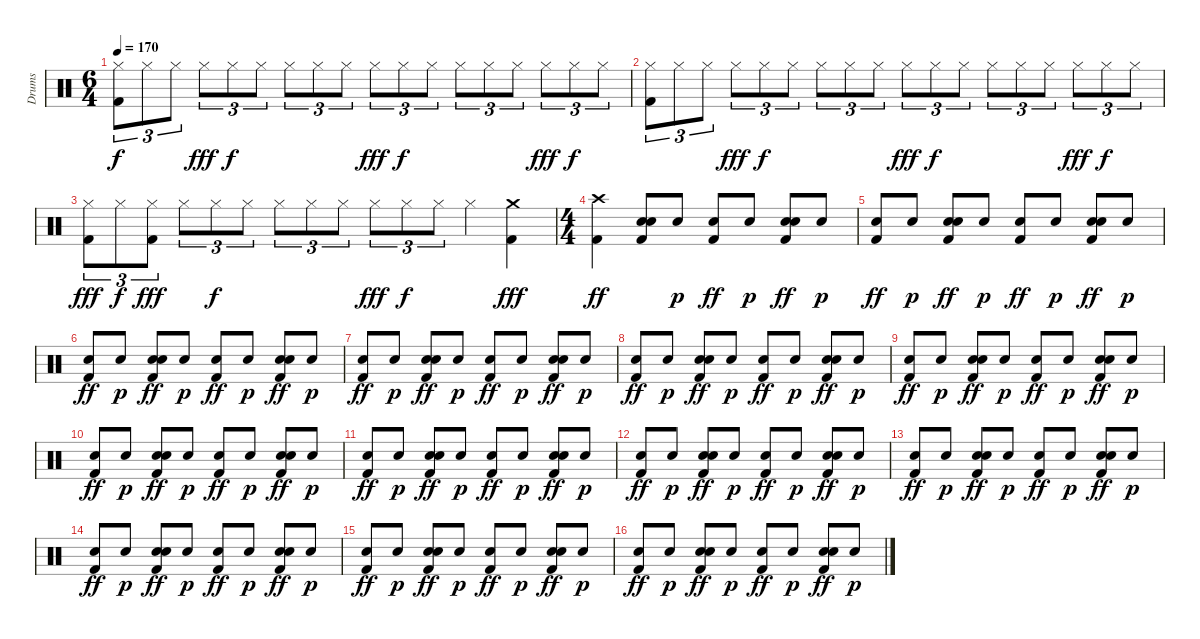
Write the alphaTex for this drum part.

\track ("Drums" "Drums") {instrument percussion}
\staff {score}
\articulation defaults
\ts (6 4)
\tempo 170
\clef neutral
\ks c
("Hi-Hat (closed)" "Kick (hit) 2").8{tu (3 2) dy f} "Hi-Hat (closed)".8{tu (3 2)} "Hi-Hat (closed)".8{tu (3 2)} "Hi-Hat (closed)".8{tu (3 2) dy fff} "Hi-Hat (closed)".8{tu (3 2) dy f} "Hi-Hat (closed)".8{tu (3 2)} "Hi-Hat (closed)".8{tu (3 2)} "Hi-Hat (closed)".8{tu (3 2)} "Hi-Hat (closed)".8{tu (3 2)} "Hi-Hat (closed)".8{tu (3 2) dy fff} "Hi-Hat (closed)".8{tu (3 2) dy f} "Hi-Hat (closed)".8{tu (3 2)} "Hi-Hat (closed)".8{tu (3 2)} "Hi-Hat (closed)".8{tu (3 2)} "Hi-Hat (closed)".8{tu (3 2)} "Hi-Hat (closed)".8{tu (3 2) dy fff} "Hi-Hat (closed)".8{tu (3 2) dy f} "Hi-Hat (closed)".8{tu (3 2)} |
("Hi-Hat (closed)" "Kick (hit) 2").8{tu (3 2)} "Hi-Hat (closed)".8{tu (3 2)} "Hi-Hat (closed)".8{tu (3 2)} "Hi-Hat (closed)".8{tu (3 2) dy fff} "Hi-Hat (closed)".8{tu (3 2) dy f} "Hi-Hat (closed)".8{tu (3 2)} "Hi-Hat (closed)".8{tu (3 2)} "Hi-Hat (closed)".8{tu (3 2)} "Hi-Hat (closed)".8{tu (3 2)} "Hi-Hat (closed)".8{tu (3 2) dy fff} "Hi-Hat (closed)".8{tu (3 2) dy f} "Hi-Hat (closed)".8{tu (3 2)} "Hi-Hat (closed)".8{tu (3 2)} "Hi-Hat (closed)".8{tu (3 2)} "Hi-Hat (closed)".8{tu (3 2)} "Hi-Hat (closed)".8{tu (3 2) dy fff} "Hi-Hat (closed)".8{tu (3 2) dy f} "Hi-Hat (closed)".8{tu (3 2)} |
("Kick (hit) 2" "Hi-Hat (closed)").8{tu (3 2) dy fff} "Hi-Hat (closed)".8{tu (3 2) dy f} ("Kick (hit) 2" "Hi-Hat (closed)").8{tu (3 2) dy fff} "Hi-Hat (closed)".8{tu (3 2)} "Hi-Hat (closed)".8{tu (3 2) dy f} "Hi-Hat (closed)".8{tu (3 2)} "Hi-Hat (closed)".8{tu (3 2)} "Hi-Hat (closed)".8{tu (3 2)} "Hi-Hat (closed)".8{tu (3 2)} "Hi-Hat (closed)".8{tu (3 2) dy fff} "Hi-Hat (closed)".8{tu (3 2) dy f} "Hi-Hat (closed)".8{tu (3 2)} "Hi-Hat (closed)".4 ("Crash medium (hit)" "Kick (hit) 2").4{dy fff} |
\ts (4 4)
("Crash high (hit)" "Kick (hit) 2").4{dy ff} ("Snare (hit) 2" "Snare (hit) 2" "Kick (hit) 2").8 "Snare (hit) 2".8{dy p} ("Snare (hit) 2" "Kick (hit) 2").8{dy ff} "Snare (hit) 2".8{dy p} ("Snare (hit) 2" "Snare (hit) 2" "Kick (hit) 2").8{dy ff} "Snare (hit) 2".8{dy p} |
("Snare (hit) 2" "Kick (hit) 2").8{dy ff} "Snare (hit) 2".8{dy p} ("Snare (hit) 2" "Snare (hit) 2" "Kick (hit) 2").8{dy ff} "Snare (hit) 2".8{dy p} ("Snare (hit) 2" "Kick (hit) 2").8{dy ff} "Snare (hit) 2".8{dy p} ("Snare (hit) 2" "Snare (hit) 2" "Kick (hit) 2").8{dy ff} "Snare (hit) 2".8{dy p} |
("Snare (hit) 2" "Kick (hit) 2").8{dy ff} "Snare (hit) 2".8{dy p} ("Snare (hit) 2" "Snare (hit) 2" "Kick (hit) 2").8{dy ff} "Snare (hit) 2".8{dy p} ("Snare (hit) 2" "Kick (hit) 2").8{dy ff} "Snare (hit) 2".8{dy p} ("Snare (hit) 2" "Snare (hit) 2" "Kick (hit) 2").8{dy ff} "Snare (hit) 2".8{dy p} |
("Snare (hit) 2" "Kick (hit) 2").8{dy ff} "Snare (hit) 2".8{dy p} ("Snare (hit) 2" "Snare (hit) 2" "Kick (hit) 2").8{dy ff} "Snare (hit) 2".8{dy p} ("Snare (hit) 2" "Kick (hit) 2").8{dy ff} "Snare (hit) 2".8{dy p} ("Snare (hit) 2" "Snare (hit) 2" "Kick (hit) 2").8{dy ff} "Snare (hit) 2".8{dy p} |
("Snare (hit) 2" "Kick (hit) 2").8{dy ff} "Snare (hit) 2".8{dy p} ("Snare (hit) 2" "Snare (hit) 2" "Kick (hit) 2").8{dy ff} "Snare (hit) 2".8{dy p} ("Snare (hit) 2" "Kick (hit) 2").8{dy ff} "Snare (hit) 2".8{dy p} ("Snare (hit) 2" "Snare (hit) 2" "Kick (hit) 2").8{dy ff} "Snare (hit) 2".8{dy p} |
("Snare (hit) 2" "Kick (hit) 2").8{dy ff} "Snare (hit) 2".8{dy p} ("Snare (hit) 2" "Snare (hit) 2" "Kick (hit) 2").8{dy ff} "Snare (hit) 2".8{dy p} ("Snare (hit) 2" "Kick (hit) 2").8{dy ff} "Snare (hit) 2".8{dy p} ("Snare (hit) 2" "Snare (hit) 2" "Kick (hit) 2").8{dy ff} "Snare (hit) 2".8{dy p} |
("Snare (hit) 2" "Kick (hit) 2").8{dy ff} "Snare (hit) 2".8{dy p} ("Snare (hit) 2" "Snare (hit) 2" "Kick (hit) 2").8{dy ff} "Snare (hit) 2".8{dy p} ("Snare (hit) 2" "Kick (hit) 2").8{dy ff} "Snare (hit) 2".8{dy p} ("Snare (hit) 2" "Snare (hit) 2" "Kick (hit) 2").8{dy ff} "Snare (hit) 2".8{dy p} |
("Snare (hit) 2" "Kick (hit) 2").8{dy ff} "Snare (hit) 2".8{dy p} ("Snare (hit) 2" "Snare (hit) 2" "Kick (hit) 2").8{dy ff} "Snare (hit) 2".8{dy p} ("Snare (hit) 2" "Kick (hit) 2").8{dy ff} "Snare (hit) 2".8{dy p} ("Snare (hit) 2" "Snare (hit) 2" "Kick (hit) 2").8{dy ff} "Snare (hit) 2".8{dy p} |
("Snare (hit) 2" "Kick (hit) 2").8{dy ff} "Snare (hit) 2".8{dy p} ("Snare (hit) 2" "Snare (hit) 2" "Kick (hit) 2").8{dy ff} "Snare (hit) 2".8{dy p} ("Snare (hit) 2" "Kick (hit) 2").8{dy ff} "Snare (hit) 2".8{dy p} ("Snare (hit) 2" "Snare (hit) 2" "Kick (hit) 2").8{dy ff} "Snare (hit) 2".8{dy p} |
("Snare (hit) 2" "Kick (hit) 2").8{dy ff} "Snare (hit) 2".8{dy p} ("Snare (hit) 2" "Snare (hit) 2" "Kick (hit) 2").8{dy ff} "Snare (hit) 2".8{dy p} ("Snare (hit) 2" "Kick (hit) 2").8{dy ff} "Snare (hit) 2".8{dy p} ("Snare (hit) 2" "Snare (hit) 2" "Kick (hit) 2").8{dy ff} "Snare (hit) 2".8{dy p} |
("Snare (hit) 2" "Kick (hit) 2").8{dy ff} "Snare (hit) 2".8{dy p} ("Snare (hit) 2" "Snare (hit) 2" "Kick (hit) 2").8{dy ff} "Snare (hit) 2".8{dy p} ("Snare (hit) 2" "Kick (hit) 2").8{dy ff} "Snare (hit) 2".8{dy p} ("Snare (hit) 2" "Snare (hit) 2" "Kick (hit) 2").8{dy ff} "Snare (hit) 2".8{dy p} |
("Snare (hit) 2" "Kick (hit) 2").8{dy ff} "Snare (hit) 2".8{dy p} ("Snare (hit) 2" "Snare (hit) 2" "Kick (hit) 2").8{dy ff} "Snare (hit) 2".8{dy p} ("Snare (hit) 2" "Kick (hit) 2").8{dy ff} "Snare (hit) 2".8{dy p} ("Snare (hit) 2" "Snare (hit) 2" "Kick (hit) 2").8{dy ff} "Snare (hit) 2".8{dy p} |
("Snare (hit) 2" "Kick (hit) 2").8{dy ff} "Snare (hit) 2".8{dy p} ("Snare (hit) 2" "Snare (hit) 2" "Kick (hit) 2").8{dy ff} "Snare (hit) 2".8{dy p} ("Snare (hit) 2" "Kick (hit) 2").8{dy ff} "Snare (hit) 2".8{dy p} ("Snare (hit) 2" "Snare (hit) 2" "Kick (hit) 2").8{dy ff} "Snare (hit) 2".8{dy p}
